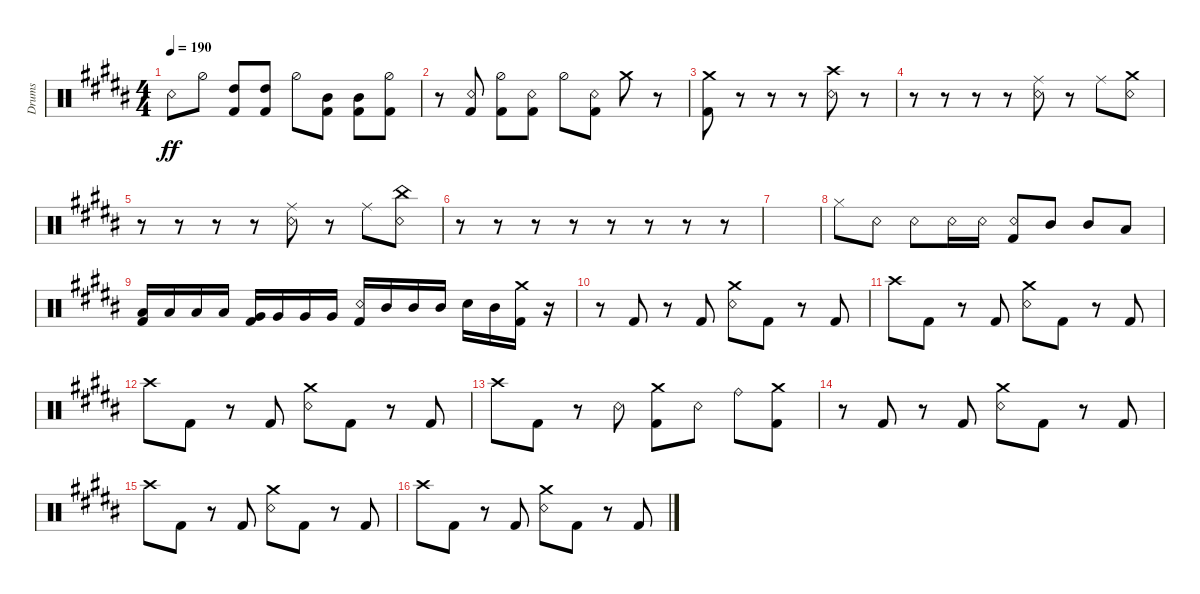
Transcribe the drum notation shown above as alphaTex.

\bracketExtendMode groupsimilarinstruments
\otherSystemsTrackNameOrientation horizontal
\track ("Drumkit" "Drums") {instrument percussion}
\staff {score}
\articulation defaults
\ts (4 4)
\tempo 190
\clef neutral
\ks b "Snare (rim shot)"{acc forcenatural}.8{dy ff} "Hi-Hat (half)"{acc forcenatural}.8
("Kick (hit) 2"{acc forcenatural} "High Tom (hit)"{acc forcenatural}).8 ("Kick (hit) 2"{acc forcenatural} "High Tom (hit)"{acc forcenatural}).8 "Hi-Hat (half)"{acc forcenatural}.8 ("Kick (hit) 2"{acc forcenatural} "Mid Tom (hit)"{acc forcenatural}).8 ("Kick (hit) 2"{acc forcenatural} "Mid Tom (hit)"{acc forcenatural}).8 ("Kick (hit) 2"{acc forcenatural} "Hi-Hat (half)"{acc forcenatural}).8 |
r.8 ("Kick (hit) 2"{acc forcenatural} "Snare (rim shot)"{acc forcenatural}).8 ("Kick (hit) 2"{acc forcenatural} "Hi-Hat (half)"{acc forcenatural}).8 ("Kick (hit) 2"{acc forcenatural} "Snare (rim shot)"{acc forcenatural}).8 "Hi-Hat (half)"{acc forcenatural}.8 ("Kick (hit) 2"{acc forcenatural} "Snare (rim shot)"{acc forcenatural}).8 "Crash medium (hit)"{acc forcenatural}.8 r.8 |
("Crash medium (hit)"{acc forcenatural} "Kick (hit) 2"{acc forcenatural}).8 r.8 r.8 r.8 ("Snare (rim shot)"{acc forcenatural} "Crash high (hit)"{acc forcenatural}).8 r.8 |
r.8 r.8 r.8 r.8 ("Snare (rim shot)"{acc forcenatural} "Ride (middle)"{acc forcenatural}).8 r.8 "Ride (middle)"{acc forcenatural}.8 ("Snare (rim shot)"{acc forcenatural} "Crash medium (hit)"{acc forcenatural}).8 |
r.8 r.8 r.8 r.8 ("Snare (rim shot)"{acc forcenatural} "Ride (middle)"{acc forcenatural}).8 r.8 "Ride (middle)"{acc forcenatural}.8 ("Snare (rim shot)"{acc forcenatural} "China (hit)"{acc forcenatural}).8 |
r.8 r.8 r.8 r.8 r.8 r.8 r.8 r.8 |
|
"Hi-Hat (closed)"{acc forcenatural}.8 "Snare (rim shot)"{acc forcenatural}.8 "Snare (rim shot)"{acc forcenatural}.8 "Snare (rim shot)"{acc forcenatural}.16 "Snare (rim shot)"{acc forcenatural}.16 ("Snare (rim shot)"{acc forcenatural} "Kick (hit) 2"{acc forcenatural}).8 "Mid Tom (hit)"{acc forcenatural}.8 "Mid Tom (hit)"{acc forcenatural}.8 "Low Tom (hit)"{acc forcenatural}.8 |
("Low Tom (hit)"{acc forcenatural} "Kick (hit) 2"{acc forcenatural}).16 "Low Tom (hit)"{acc forcenatural}.16 "Low Tom (hit)"{acc forcenatural}.16 "Low Tom (hit)"{acc forcenatural}.16 ("Very Low Tom (hit)"{acc forcenatural} "Kick (hit) 2"{acc forcenatural}).16 "Very Low Tom (hit)"{acc forcenatural}.16 "Very Low Tom (hit)"{acc forcenatural}.16 "Very Low Tom (hit)"{acc forcenatural}.16 ("Snare (rim shot)"{acc forcenatural} "Kick (hit) 2"{acc forcenatural}).16 "Mid Tom (hit)"{acc forcenatural}.16 "Mid Tom (hit)"{acc forcenatural}.16 "Mid Tom (hit)"{acc forcenatural}.16 "Snare (hit) 2"{acc forcenatural}.16 "Mid Tom (hit)"{acc forcenatural}.16 ("Crash medium (hit)"{acc forcenatural} "Kick (hit) 2"{acc forcenatural}).16 r.16 |
r.8 "Kick (hit) 2"{acc forcenatural}.8 r.8 "Kick (hit) 2"{acc forcenatural}.8 ("Snare (rim shot)"{acc forcenatural} "Crash medium (hit)"{acc forcenatural}).8 "Kick (hit) 2"{acc forcenatural}.8 r.8 "Kick (hit) 2"{acc forcenatural}.8 |
"Crash high (hit)"{acc forcenatural}.8 "Kick (hit) 2"{acc forcenatural}.8 r.8 "Kick (hit) 2"{acc forcenatural}.8 ("Snare (rim shot)"{acc forcenatural} "Crash medium (hit)"{acc forcenatural}).8 "Kick (hit) 2"{acc forcenatural}.8 r.8 "Kick (hit) 2"{acc forcenatural}.8 |
"Crash high (hit)"{acc forcenatural}.8 "Kick (hit) 2"{acc forcenatural}.8 r.8 "Kick (hit) 2"{acc forcenatural}.8 ("Snare (rim shot)"{acc forcenatural} "Crash medium (hit)"{acc forcenatural}).8 "Kick (hit) 2"{acc forcenatural}.8 r.8 "Kick (hit) 2"{acc forcenatural}.8 |
"Crash high (hit)"{acc forcenatural}.8 "Kick (hit) 2"{acc forcenatural}.8 r.8 "Snare (rim shot)"{acc forcenatural}.8 ("Crash medium (hit)"{acc forcenatural} "Kick (hit) 2"{acc forcenatural}).8 "Snare (rim shot)"{acc forcenatural}.8 "Ride (bell)"{acc forcenatural}.8 ("Kick (hit) 2"{acc forcenatural} "Crash medium (hit)"{acc forcenatural}).8 |
r.8 "Kick (hit) 2"{acc forcenatural}.8 r.8 "Kick (hit) 2"{acc forcenatural}.8 ("Snare (rim shot)"{acc forcenatural} "Crash medium (hit)"{acc forcenatural}).8 "Kick (hit) 2"{acc forcenatural}.8 r.8 "Kick (hit) 2"{acc forcenatural}.8 |
"Crash high (hit)"{acc forcenatural}.8 "Kick (hit) 2"{acc forcenatural}.8 r.8 "Kick (hit) 2"{acc forcenatural}.8 ("Snare (rim shot)"{acc forcenatural} "Crash medium (hit)"{acc forcenatural}).8 "Kick (hit) 2"{acc forcenatural}.8 r.8 "Kick (hit) 2"{acc forcenatural}.8 |
"Crash high (hit)"{acc forcenatural}.8 "Kick (hit) 2"{acc forcenatural}.8 r.8 "Kick (hit) 2"{acc forcenatural}.8 ("Snare (rim shot)"{acc forcenatural} "Crash medium (hit)"{acc forcenatural}).8 "Kick (hit) 2"{acc forcenatural}.8 r.8 "Kick (hit) 2"{acc forcenatural}.8
